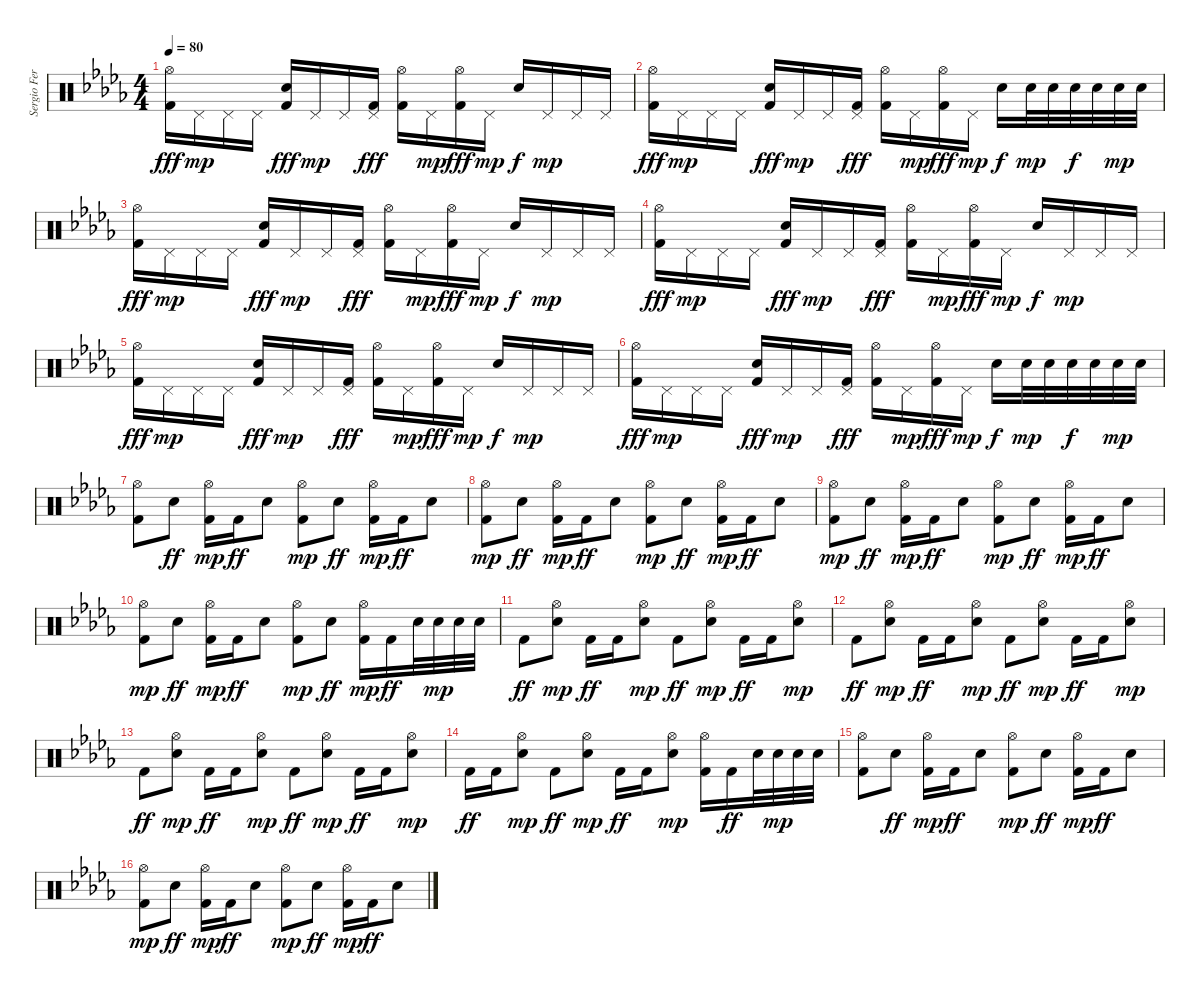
\track ("Sergio Fernandez \"Taz\"" "Sergio Fer") {instrument percussion}
\staff {score}
\articulation defaults
\ts (4 4)
\tempo 80
\clef neutral
\ks bbminor
("Hi-Hat (open)" "Kick (hit) 2").16{dy fff} "Pedal Hi-Hat (hit)".16{dy mp} "Pedal Hi-Hat (hit)".16 "Pedal Hi-Hat (hit)".16 ("Electric Snare (hit)" "Kick (hit) 2").16{dy fff} "Pedal Hi-Hat (hit)".16{dy mp} "Pedal Hi-Hat (hit)".16 ("Pedal Hi-Hat (hit)" "Kick (hit) 2").16{dy fff} ("Hi-Hat (open)" "Kick (hit) 2").16 "Pedal Hi-Hat (hit)".16{dy mp} ("Hi-Hat (open)" "Kick (hit) 2").16{dy fff} "Pedal Hi-Hat (hit)".16{dy mp} "Electric Snare (hit)".16{dy f} "Pedal Hi-Hat (hit)".16{dy mp} "Pedal Hi-Hat (hit)".16 "Pedal Hi-Hat (hit)".16 |
("Hi-Hat (open)" "Kick (hit) 2").16{dy fff} "Pedal Hi-Hat (hit)".16{dy mp} "Pedal Hi-Hat (hit)".16 "Pedal Hi-Hat (hit)".16 ("Electric Snare (hit)" "Kick (hit) 2").16{dy fff} "Pedal Hi-Hat (hit)".16{dy mp} "Pedal Hi-Hat (hit)".16 ("Pedal Hi-Hat (hit)" "Kick (hit) 2").16{dy fff} ("Hi-Hat (open)" "Kick (hit) 2").16 "Pedal Hi-Hat (hit)".16{dy mp} ("Hi-Hat (open)" "Kick (hit) 2").16{dy fff} "Pedal Hi-Hat (hit)".16{dy mp} "Snare (hit) 2".16{dy f} "Snare (hit) 2".32{dy mp} "Snare (hit) 2".32 "Snare (hit) 2".32{dy f} "Snare (hit) 2".32 "Snare (hit) 2".32{dy mp} "Snare (hit) 2".32 |
("Hi-Hat (open)" "Kick (hit) 2").16{dy fff} "Pedal Hi-Hat (hit)".16{dy mp} "Pedal Hi-Hat (hit)".16 "Pedal Hi-Hat (hit)".16 ("Electric Snare (hit)" "Kick (hit) 2").16{dy fff} "Pedal Hi-Hat (hit)".16{dy mp} "Pedal Hi-Hat (hit)".16 ("Pedal Hi-Hat (hit)" "Kick (hit) 2").16{dy fff} ("Hi-Hat (open)" "Kick (hit) 2").16 "Pedal Hi-Hat (hit)".16{dy mp} ("Hi-Hat (open)" "Kick (hit) 2").16{dy fff} "Pedal Hi-Hat (hit)".16{dy mp} "Electric Snare (hit)".16{dy f} "Pedal Hi-Hat (hit)".16{dy mp} "Pedal Hi-Hat (hit)".16 "Pedal Hi-Hat (hit)".16 |
("Hi-Hat (open)" "Kick (hit) 2").16{dy fff} "Pedal Hi-Hat (hit)".16{dy mp} "Pedal Hi-Hat (hit)".16 "Pedal Hi-Hat (hit)".16 ("Electric Snare (hit)" "Kick (hit) 2").16{dy fff} "Pedal Hi-Hat (hit)".16{dy mp} "Pedal Hi-Hat (hit)".16 ("Pedal Hi-Hat (hit)" "Kick (hit) 2").16{dy fff} ("Hi-Hat (open)" "Kick (hit) 2").16 "Pedal Hi-Hat (hit)".16{dy mp} ("Hi-Hat (open)" "Kick (hit) 2").16{dy fff} "Pedal Hi-Hat (hit)".16{dy mp} "Electric Snare (hit)".16{dy f} "Pedal Hi-Hat (hit)".16{dy mp} "Pedal Hi-Hat (hit)".16 "Pedal Hi-Hat (hit)".16 |
("Hi-Hat (open)" "Kick (hit) 2").16{dy fff} "Pedal Hi-Hat (hit)".16{dy mp} "Pedal Hi-Hat (hit)".16 "Pedal Hi-Hat (hit)".16 ("Electric Snare (hit)" "Kick (hit) 2").16{dy fff} "Pedal Hi-Hat (hit)".16{dy mp} "Pedal Hi-Hat (hit)".16 ("Pedal Hi-Hat (hit)" "Kick (hit) 2").16{dy fff} ("Hi-Hat (open)" "Kick (hit) 2").16 "Pedal Hi-Hat (hit)".16{dy mp} ("Hi-Hat (open)" "Kick (hit) 2").16{dy fff} "Pedal Hi-Hat (hit)".16{dy mp} "Electric Snare (hit)".16{dy f} "Pedal Hi-Hat (hit)".16{dy mp} "Pedal Hi-Hat (hit)".16 "Pedal Hi-Hat (hit)".16 |
("Hi-Hat (open)" "Kick (hit) 2").16{dy fff} "Pedal Hi-Hat (hit)".16{dy mp} "Pedal Hi-Hat (hit)".16 "Pedal Hi-Hat (hit)".16 ("Electric Snare (hit)" "Kick (hit) 2").16{dy fff} "Pedal Hi-Hat (hit)".16{dy mp} "Pedal Hi-Hat (hit)".16 ("Pedal Hi-Hat (hit)" "Kick (hit) 2").16{dy fff} ("Hi-Hat (open)" "Kick (hit) 2").16 "Pedal Hi-Hat (hit)".16{dy mp} ("Hi-Hat (open)" "Kick (hit) 2").16{dy fff} "Pedal Hi-Hat (hit)".16{dy mp} "Snare (hit) 2".16{dy f} "Snare (hit) 2".32{dy mp} "Snare (hit) 2".32 "Snare (hit) 2".32{dy f} "Snare (hit) 2".32 "Snare (hit) 2".32{dy mp} "Snare (hit) 2".32 |
("Kick (hit) 2" "Hi-Hat (open)").8 "Electric Snare (hit)".8{dy ff} ("Kick (hit) 2" "Hi-Hat (open)").16{dy mp} "Kick (hit) 2".16{dy ff} "Electric Snare (hit)".8 ("Kick (hit) 2" "Hi-Hat (open)").8{dy mp} "Electric Snare (hit)".8{dy ff} ("Kick (hit) 2" "Hi-Hat (open)").16{dy mp} "Kick (hit) 2".16{dy ff} "Electric Snare (hit)".8 |
("Kick (hit) 2" "Hi-Hat (open)").8{dy mp} "Electric Snare (hit)".8{dy ff} ("Kick (hit) 2" "Hi-Hat (open)").16{dy mp} "Kick (hit) 2".16{dy ff} "Electric Snare (hit)".8 ("Kick (hit) 2" "Hi-Hat (open)").8{dy mp} "Electric Snare (hit)".8{dy ff} ("Kick (hit) 2" "Hi-Hat (open)").16{dy mp} "Kick (hit) 2".16{dy ff} "Electric Snare (hit)".8 |
("Kick (hit) 2" "Hi-Hat (open)").8{dy mp} "Electric Snare (hit)".8{dy ff} ("Kick (hit) 2" "Hi-Hat (open)").16{dy mp} "Kick (hit) 2".16{dy ff} "Electric Snare (hit)".8 ("Kick (hit) 2" "Hi-Hat (open)").8{dy mp} "Electric Snare (hit)".8{dy ff} ("Kick (hit) 2" "Hi-Hat (open)").16{dy mp} "Kick (hit) 2".16{dy ff} "Electric Snare (hit)".8 |
("Kick (hit) 2" "Hi-Hat (open)").8{dy mp} "Electric Snare (hit)".8{dy ff} ("Kick (hit) 2" "Hi-Hat (open)").16{dy mp} "Kick (hit) 2".16{dy ff} "Electric Snare (hit)".8 ("Kick (hit) 2" "Hi-Hat (open)").8{dy mp} "Electric Snare (hit)".8{dy ff} ("Kick (hit) 2" "Hi-Hat (open)").16{dy mp} "Kick (hit) 2".16{dy ff} "Electric Snare (hit)".32 "Electric Snare (hit)".32{dy mp} "Electric Snare (hit)".32 "Electric Snare (hit)".32 |
"Kick (hit) 2".8{dy ff} ("Electric Snare (hit)" "Hi-Hat (open)").8{dy mp} "Kick (hit) 2".16{dy ff} "Kick (hit) 2".16 ("Electric Snare (hit)" "Hi-Hat (open)").8{dy mp} "Kick (hit) 2".8{dy ff} ("Electric Snare (hit)" "Hi-Hat (open)").8{dy mp} "Kick (hit) 2".16{dy ff} "Kick (hit) 2".16 ("Electric Snare (hit)" "Hi-Hat (open)").8{dy mp} |
"Kick (hit) 2".8{dy ff} ("Electric Snare (hit)" "Hi-Hat (open)").8{dy mp} "Kick (hit) 2".16{dy ff} "Kick (hit) 2".16 ("Electric Snare (hit)" "Hi-Hat (open)").8{dy mp} "Kick (hit) 2".8{dy ff} ("Electric Snare (hit)" "Hi-Hat (open)").8{dy mp} "Kick (hit) 2".16{dy ff} "Kick (hit) 2".16 ("Electric Snare (hit)" "Hi-Hat (open)").8{dy mp} |
"Kick (hit) 2".8{dy ff} ("Electric Snare (hit)" "Hi-Hat (open)").8{dy mp} "Kick (hit) 2".16{dy ff} "Kick (hit) 2".16 ("Electric Snare (hit)" "Hi-Hat (open)").8{dy mp} "Kick (hit) 2".8{dy ff} ("Electric Snare (hit)" "Hi-Hat (open)").8{dy mp} "Kick (hit) 2".16{dy ff} "Kick (hit) 2".16 ("Electric Snare (hit)" "Hi-Hat (open)").8{dy mp} |
"Kick (hit) 2".16{dy ff} "Kick (hit) 2".16 ("Electric Snare (hit)" "Hi-Hat (open)").8{dy mp} "Kick (hit) 2".8{dy ff} ("Electric Snare (hit)" "Hi-Hat (open)").8{dy mp} "Kick (hit) 2".16{dy ff} "Kick (hit) 2".16 ("Electric Snare (hit)" "Hi-Hat (open)").8{dy mp} ("Kick (hit) 2" "Hi-Hat (open)").16 "Kick (hit) 2".16{dy ff} "Electric Snare (hit)".32 "Electric Snare (hit)".32{dy mp} "Electric Snare (hit)".32 "Electric Snare (hit)".32 |
("Kick (hit) 2" "Hi-Hat (open)").8 "Electric Snare (hit)".8{dy ff} ("Kick (hit) 2" "Hi-Hat (open)").16{dy mp} "Kick (hit) 2".16{dy ff} "Electric Snare (hit)".8 ("Kick (hit) 2" "Hi-Hat (open)").8{dy mp} "Electric Snare (hit)".8{dy ff} ("Kick (hit) 2" "Hi-Hat (open)").16{dy mp} "Kick (hit) 2".16{dy ff} "Electric Snare (hit)".8 |
("Kick (hit) 2" "Hi-Hat (open)").8{dy mp} "Electric Snare (hit)".8{dy ff} ("Kick (hit) 2" "Hi-Hat (open)").16{dy mp} "Kick (hit) 2".16{dy ff} "Electric Snare (hit)".8 ("Kick (hit) 2" "Hi-Hat (open)").8{dy mp} "Electric Snare (hit)".8{dy ff} ("Kick (hit) 2" "Hi-Hat (open)").16{dy mp} "Kick (hit) 2".16{dy ff} "Electric Snare (hit)".8
